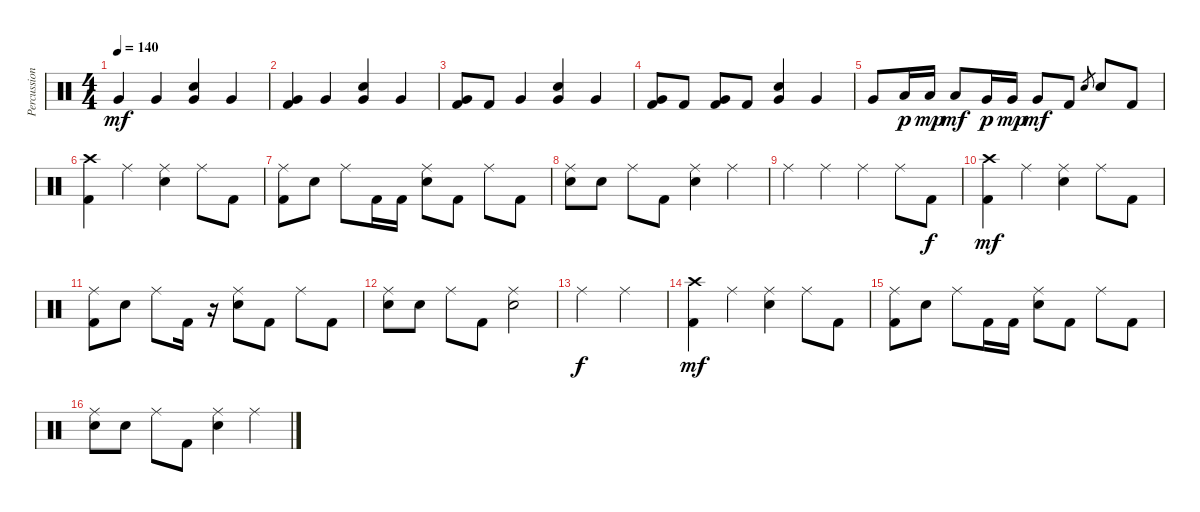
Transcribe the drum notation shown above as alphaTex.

\track ("Percussion" "Percussion") {instrument percussion}
\staff {score}
\articulation defaults
\ts (4 4)
\tempo 140
\clef neutral
\ks c "Very Low Tom (hit)".4{dy mf} "Very Low Tom (hit)".4
("Very Low Tom (hit)" "Snare (hit) 2").4 "Very Low Tom (hit)".4 |
("Very Low Tom (hit)" "Kick (hit) 2").4 "Very Low Tom (hit)".4 ("Very Low Tom (hit)" "Snare (hit) 2").4 "Very Low Tom (hit)".4 |
("Very Low Tom (hit)" "Kick (hit) 2").8 "Kick (hit) 2".8 "Very Low Tom (hit)".4 ("Very Low Tom (hit)" "Snare (hit) 2").4 "Very Low Tom (hit)".4 |
("Very Low Tom (hit)" "Kick (hit) 2").8 "Kick (hit) 2".8 ("Very Low Tom (hit)" "Kick (hit) 2").8 "Kick (hit) 2".8 ("Very Low Tom (hit)" "Snare (hit) 2").4 "Very Low Tom (hit)".4 |
"Very Low Tom (hit)".8 "Low Tom (hit)".16{dy p} "Low Tom (hit)".16{dy mp} "Low Tom (hit)".8{dy mf} "Very Low Tom (hit)".16{dy p} "Very Low Tom (hit)".16{dy mp} "Very Low Tom (hit)".8{dy mf} "Kick (hit) 2".8 "Snare (hit) 2".8{gr} "Snare (hit) 2".8 "Kick (hit) 2".8 |
("Crash high (hit)" "Kick (hit) 2").4 "Ride (middle)".4 ("Ride (middle)" "Snare (hit) 2").4 "Ride (middle)".8 "Kick (hit) 2".8 |
("Ride (middle)" "Kick (hit) 2").8 "Snare (hit) 2".8 "Ride (middle)".8 "Kick (hit) 2".16 "Kick (hit) 2".16 ("Ride (middle)" "Snare (hit) 2").8 "Kick (hit) 2".8 "Ride (middle)".8 "Kick (hit) 2".8 |
("Ride (middle)" "Snare (hit) 2").8 "Snare (hit) 2".8 "Ride (middle)".8 "Kick (hit) 2".8 ("Ride (middle)" "Snare (hit) 2").4 "Ride (middle)".4 |
"Ride (middle)".4 "Ride (middle)".4 "Ride (middle)".4 "Ride (middle)".8 "Kick (hit) 2".8{dy f} |
("Crash high (hit)" "Kick (hit) 2").4{dy mf} "Ride (middle)".4 ("Ride (middle)" "Snare (hit) 2").4 "Ride (middle)".8 "Kick (hit) 2".8 |
("Ride (middle)" "Kick (hit) 2").8 "Snare (hit) 2".8 "Ride (middle)".8 "Kick (hit) 2".16 r.16 ("Ride (middle)" "Snare (hit) 2").8 "Kick (hit) 2".8 "Ride (middle)".8 "Kick (hit) 2".8 |
("Ride (middle)" "Snare (hit) 2").8 "Snare (hit) 2".8 "Ride (middle)".8 "Kick (hit) 2".8 ("Ride (middle)" "Snare (hit) 2").2 |
"Ride (middle)".2{dy f} "Ride (middle)".2 |
("Crash high (hit)" "Kick (hit) 2").4{dy mf} "Ride (middle)".4 ("Ride (middle)" "Snare (hit) 2").4 "Ride (middle)".8 "Kick (hit) 2".8 |
("Ride (middle)" "Kick (hit) 2").8 "Snare (hit) 2".8 "Ride (middle)".8 "Kick (hit) 2".16 "Kick (hit) 2".16 ("Ride (middle)" "Snare (hit) 2").8 "Kick (hit) 2".8 "Ride (middle)".8 "Kick (hit) 2".8 |
("Ride (middle)" "Snare (hit) 2").8 "Snare (hit) 2".8 "Ride (middle)".8 "Kick (hit) 2".8 ("Ride (middle)" "Snare (hit) 2").4 "Ride (middle)".4
